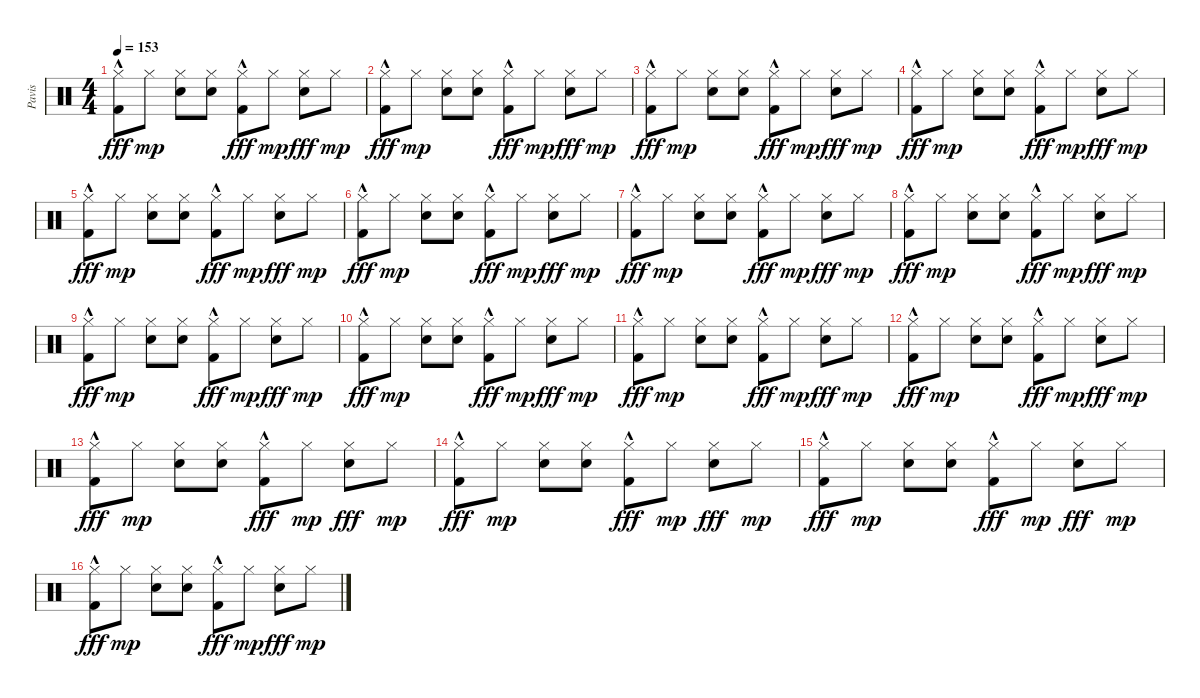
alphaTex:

\track ("Pavis" "Pavis") {instrument percussion}
\staff {score}
\articulation defaults
\ts (4 4)
\tempo 153
\clef neutral
\ks c
("Hi-Hat (closed)" "Kick (hit) 2"{hac}).8{dy fff} "Hi-Hat (closed)".8{dy mp} ("Hi-Hat (closed)" "Electric Snare (hit)").8 ("Hi-Hat (closed)" "Electric Snare (hit)").8 ("Hi-Hat (closed)" "Kick (hit) 2"{hac}).8{dy fff} "Hi-Hat (closed)".8{dy mp} ("Hi-Hat (closed)" "Electric Snare (hit)").8{dy fff} "Hi-Hat (closed)".8{dy mp} |
("Hi-Hat (closed)" "Kick (hit) 2"{hac}).8{dy fff} "Hi-Hat (closed)".8{dy mp} ("Hi-Hat (closed)" "Electric Snare (hit)").8 ("Hi-Hat (closed)" "Electric Snare (hit)").8 ("Hi-Hat (closed)" "Kick (hit) 2"{hac}).8{dy fff} "Hi-Hat (closed)".8{dy mp} ("Hi-Hat (closed)" "Electric Snare (hit)").8{dy fff} "Hi-Hat (closed)".8{dy mp} |
("Hi-Hat (closed)" "Kick (hit) 2"{hac}).8{dy fff} "Hi-Hat (closed)".8{dy mp} ("Hi-Hat (closed)" "Electric Snare (hit)").8 ("Hi-Hat (closed)" "Electric Snare (hit)").8 ("Hi-Hat (closed)" "Kick (hit) 2"{hac}).8{dy fff} "Hi-Hat (closed)".8{dy mp} ("Hi-Hat (closed)" "Electric Snare (hit)").8{dy fff} "Hi-Hat (closed)".8{dy mp} |
("Hi-Hat (closed)" "Kick (hit) 2"{hac}).8{dy fff} "Hi-Hat (closed)".8{dy mp} ("Hi-Hat (closed)" "Electric Snare (hit)").8 ("Hi-Hat (closed)" "Electric Snare (hit)").8 ("Hi-Hat (closed)" "Kick (hit) 2"{hac}).8{dy fff} "Hi-Hat (closed)".8{dy mp} ("Hi-Hat (closed)" "Electric Snare (hit)").8{dy fff} "Hi-Hat (closed)".8{dy mp} |
("Hi-Hat (closed)" "Kick (hit) 2"{hac}).8{dy fff} "Hi-Hat (closed)".8{dy mp} ("Hi-Hat (closed)" "Electric Snare (hit)").8 ("Hi-Hat (closed)" "Electric Snare (hit)").8 ("Hi-Hat (closed)" "Kick (hit) 2"{hac}).8{dy fff} "Hi-Hat (closed)".8{dy mp} ("Hi-Hat (closed)" "Electric Snare (hit)").8{dy fff} "Hi-Hat (closed)".8{dy mp} |
("Hi-Hat (closed)" "Kick (hit) 2"{hac}).8{dy fff} "Hi-Hat (closed)".8{dy mp} ("Hi-Hat (closed)" "Electric Snare (hit)").8 ("Hi-Hat (closed)" "Electric Snare (hit)").8 ("Hi-Hat (closed)" "Kick (hit) 2"{hac}).8{dy fff} "Hi-Hat (closed)".8{dy mp} ("Hi-Hat (closed)" "Electric Snare (hit)").8{dy fff} "Hi-Hat (closed)".8{dy mp} |
("Hi-Hat (closed)" "Kick (hit) 2"{hac}).8{dy fff} "Hi-Hat (closed)".8{dy mp} ("Hi-Hat (closed)" "Electric Snare (hit)").8 ("Hi-Hat (closed)" "Electric Snare (hit)").8 ("Hi-Hat (closed)" "Kick (hit) 2"{hac}).8{dy fff} "Hi-Hat (closed)".8{dy mp} ("Hi-Hat (closed)" "Electric Snare (hit)").8{dy fff} "Hi-Hat (closed)".8{dy mp} |
("Hi-Hat (closed)" "Kick (hit) 2"{hac}).8{dy fff} "Hi-Hat (closed)".8{dy mp} ("Hi-Hat (closed)" "Electric Snare (hit)").8 ("Hi-Hat (closed)" "Electric Snare (hit)").8 ("Hi-Hat (closed)" "Kick (hit) 2"{hac}).8{dy fff} "Hi-Hat (closed)".8{dy mp} ("Hi-Hat (closed)" "Electric Snare (hit)").8{dy fff} "Hi-Hat (closed)".8{dy mp} |
("Hi-Hat (closed)" "Kick (hit) 2"{hac}).8{dy fff} "Hi-Hat (closed)".8{dy mp} ("Hi-Hat (closed)" "Electric Snare (hit)").8 ("Hi-Hat (closed)" "Electric Snare (hit)").8 ("Hi-Hat (closed)" "Kick (hit) 2"{hac}).8{dy fff} "Hi-Hat (closed)".8{dy mp} ("Hi-Hat (closed)" "Electric Snare (hit)").8{dy fff} "Hi-Hat (closed)".8{dy mp} |
("Hi-Hat (closed)" "Kick (hit) 2"{hac}).8{dy fff} "Hi-Hat (closed)".8{dy mp} ("Hi-Hat (closed)" "Electric Snare (hit)").8 ("Hi-Hat (closed)" "Electric Snare (hit)").8 ("Hi-Hat (closed)" "Kick (hit) 2"{hac}).8{dy fff} "Hi-Hat (closed)".8{dy mp} ("Hi-Hat (closed)" "Electric Snare (hit)").8{dy fff} "Hi-Hat (closed)".8{dy mp} |
("Hi-Hat (closed)" "Kick (hit) 2"{hac}).8{dy fff} "Hi-Hat (closed)".8{dy mp} ("Hi-Hat (closed)" "Electric Snare (hit)").8 ("Hi-Hat (closed)" "Electric Snare (hit)").8 ("Hi-Hat (closed)" "Kick (hit) 2"{hac}).8{dy fff} "Hi-Hat (closed)".8{dy mp} ("Hi-Hat (closed)" "Electric Snare (hit)").8{dy fff} "Hi-Hat (closed)".8{dy mp} |
("Hi-Hat (closed)" "Kick (hit) 2"{hac}).8{dy fff} "Hi-Hat (closed)".8{dy mp} ("Hi-Hat (closed)" "Electric Snare (hit)").8 ("Hi-Hat (closed)" "Electric Snare (hit)").8 ("Hi-Hat (closed)" "Kick (hit) 2"{hac}).8{dy fff} "Hi-Hat (closed)".8{dy mp} ("Hi-Hat (closed)" "Electric Snare (hit)").8{dy fff} "Hi-Hat (closed)".8{dy mp} |
("Hi-Hat (closed)" "Kick (hit) 2"{hac}).8{dy fff} "Hi-Hat (closed)".8{dy mp} ("Hi-Hat (closed)" "Electric Snare (hit)").8 ("Hi-Hat (closed)" "Electric Snare (hit)").8 ("Hi-Hat (closed)" "Kick (hit) 2"{hac}).8{dy fff} "Hi-Hat (closed)".8{dy mp} ("Hi-Hat (closed)" "Electric Snare (hit)").8{dy fff} "Hi-Hat (closed)".8{dy mp} |
("Hi-Hat (closed)" "Kick (hit) 2"{hac}).8{dy fff} "Hi-Hat (closed)".8{dy mp} ("Hi-Hat (closed)" "Electric Snare (hit)").8 ("Hi-Hat (closed)" "Electric Snare (hit)").8 ("Hi-Hat (closed)" "Kick (hit) 2"{hac}).8{dy fff} "Hi-Hat (closed)".8{dy mp} ("Hi-Hat (closed)" "Electric Snare (hit)").8{dy fff} "Hi-Hat (closed)".8{dy mp} |
("Hi-Hat (closed)" "Kick (hit) 2"{hac}).8{dy fff} "Hi-Hat (closed)".8{dy mp} ("Hi-Hat (closed)" "Electric Snare (hit)").8 ("Hi-Hat (closed)" "Electric Snare (hit)").8 ("Hi-Hat (closed)" "Kick (hit) 2"{hac}).8{dy fff} "Hi-Hat (closed)".8{dy mp} ("Hi-Hat (closed)" "Electric Snare (hit)").8{dy fff} "Hi-Hat (closed)".8{dy mp} |
("Hi-Hat (closed)" "Kick (hit) 2"{hac}).8{dy fff} "Hi-Hat (closed)".8{dy mp} ("Hi-Hat (closed)" "Electric Snare (hit)").8 ("Hi-Hat (closed)" "Electric Snare (hit)").8 ("Hi-Hat (closed)" "Kick (hit) 2"{hac}).8{dy fff} "Hi-Hat (closed)".8{dy mp} ("Hi-Hat (closed)" "Electric Snare (hit)").8{dy fff} "Hi-Hat (closed)".8{dy mp}
